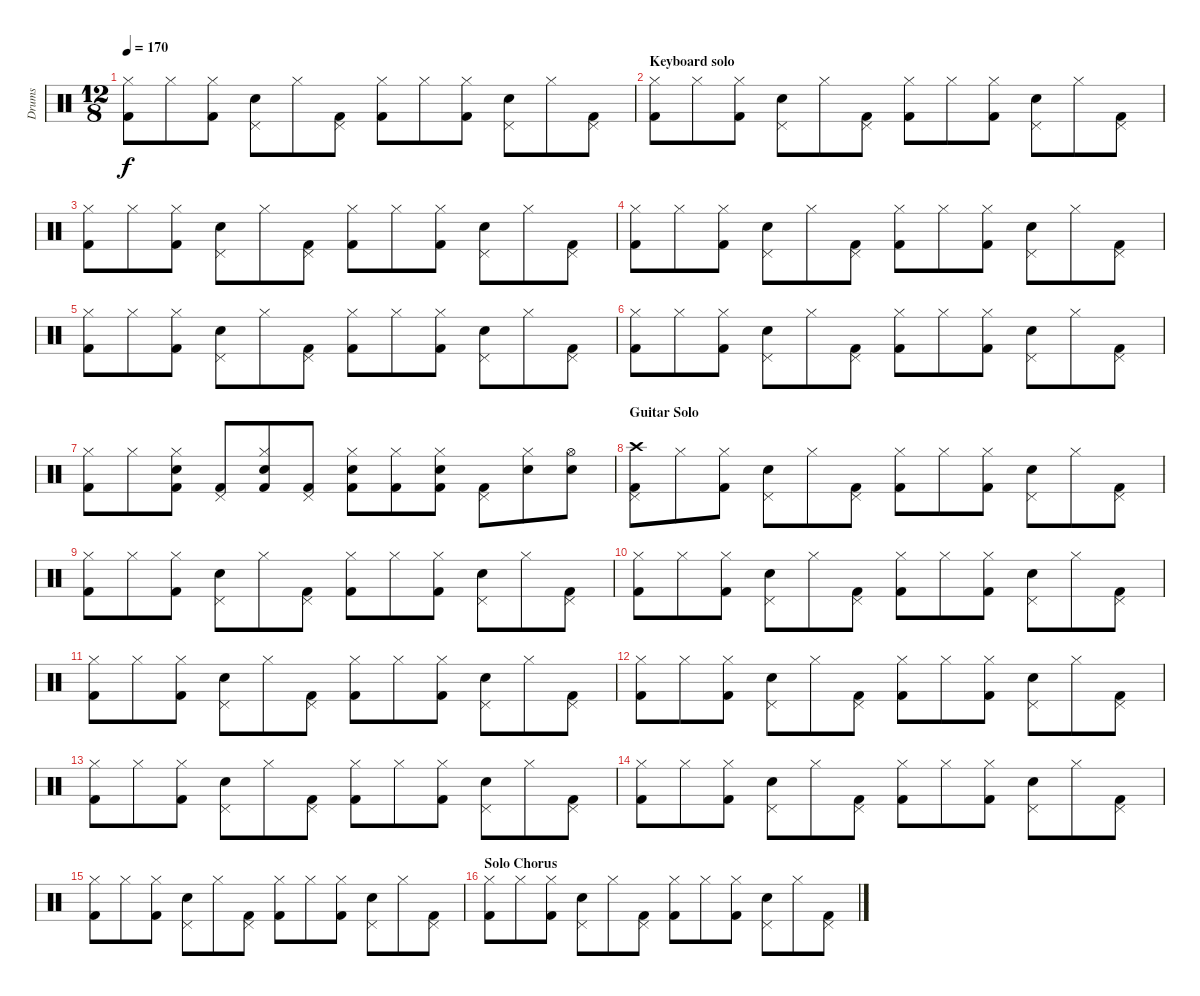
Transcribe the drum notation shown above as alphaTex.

\track ("Drums" "Drums") {instrument percussion}
\staff {score}
\articulation defaults
\ts (12 8)
\tempo 170
\clef neutral
\ks c
("Kick (hit) 2" "Hi-Hat (closed)").8{dy f} "Hi-Hat (closed)".8 ("Kick (hit) 2" "Hi-Hat (closed)").8 ("Snare (hit) 2" "Pedal Hi-Hat (hit)").8 "Hi-Hat (closed)".8 ("Kick (hit) 2" "Pedal Hi-Hat (hit)").8 ("Kick (hit) 2" "Hi-Hat (closed)").8 "Hi-Hat (closed)".8 ("Kick (hit) 2" "Hi-Hat (closed)").8 ("Snare (hit) 2" "Pedal Hi-Hat (hit)").8 "Hi-Hat (closed)".8 ("Kick (hit) 2" "Pedal Hi-Hat (hit)").8 |
\section ("" "Keyboard solo")
("Kick (hit) 2" "Hi-Hat (closed)").8 "Hi-Hat (closed)".8 ("Kick (hit) 2" "Hi-Hat (closed)").8 ("Snare (hit) 2" "Pedal Hi-Hat (hit)").8 "Hi-Hat (closed)".8 ("Kick (hit) 2" "Pedal Hi-Hat (hit)").8 ("Kick (hit) 2" "Hi-Hat (closed)").8 "Hi-Hat (closed)".8 ("Kick (hit) 2" "Hi-Hat (closed)").8 ("Snare (hit) 2" "Pedal Hi-Hat (hit)").8 "Hi-Hat (closed)".8 ("Kick (hit) 2" "Pedal Hi-Hat (hit)").8 |
("Kick (hit) 2" "Hi-Hat (closed)").8 "Hi-Hat (closed)".8 ("Kick (hit) 2" "Hi-Hat (closed)").8 ("Snare (hit) 2" "Pedal Hi-Hat (hit)").8 "Hi-Hat (closed)".8 ("Kick (hit) 2" "Pedal Hi-Hat (hit)").8 ("Kick (hit) 2" "Hi-Hat (closed)").8 "Hi-Hat (closed)".8 ("Kick (hit) 2" "Hi-Hat (closed)").8 ("Snare (hit) 2" "Pedal Hi-Hat (hit)").8 "Hi-Hat (closed)".8 ("Kick (hit) 2" "Pedal Hi-Hat (hit)").8 |
("Kick (hit) 2" "Hi-Hat (closed)").8 "Hi-Hat (closed)".8 ("Kick (hit) 2" "Hi-Hat (closed)").8 ("Snare (hit) 2" "Pedal Hi-Hat (hit)").8 "Hi-Hat (closed)".8 ("Kick (hit) 2" "Pedal Hi-Hat (hit)").8 ("Kick (hit) 2" "Hi-Hat (closed)").8 "Hi-Hat (closed)".8 ("Kick (hit) 2" "Hi-Hat (closed)").8 ("Snare (hit) 2" "Pedal Hi-Hat (hit)").8 "Hi-Hat (closed)".8 ("Kick (hit) 2" "Pedal Hi-Hat (hit)").8 |
("Kick (hit) 2" "Hi-Hat (closed)").8 "Hi-Hat (closed)".8 ("Kick (hit) 2" "Hi-Hat (closed)").8 ("Snare (hit) 2" "Pedal Hi-Hat (hit)").8 "Hi-Hat (closed)".8 ("Kick (hit) 2" "Pedal Hi-Hat (hit)").8 ("Kick (hit) 2" "Hi-Hat (closed)").8 "Hi-Hat (closed)".8 ("Kick (hit) 2" "Hi-Hat (closed)").8 ("Snare (hit) 2" "Pedal Hi-Hat (hit)").8 "Hi-Hat (closed)".8 ("Kick (hit) 2" "Pedal Hi-Hat (hit)").8 |
("Kick (hit) 2" "Hi-Hat (closed)").8 "Hi-Hat (closed)".8 ("Kick (hit) 2" "Hi-Hat (closed)").8 ("Snare (hit) 2" "Pedal Hi-Hat (hit)").8 "Hi-Hat (closed)".8 ("Kick (hit) 2" "Pedal Hi-Hat (hit)").8 ("Kick (hit) 2" "Hi-Hat (closed)").8 "Hi-Hat (closed)".8 ("Kick (hit) 2" "Hi-Hat (closed)").8 ("Snare (hit) 2" "Pedal Hi-Hat (hit)").8 "Hi-Hat (closed)".8 ("Kick (hit) 2" "Pedal Hi-Hat (hit)").8 |
("Kick (hit) 2" "Hi-Hat (closed)").8 "Hi-Hat (closed)".8 ("Kick (hit) 2" "Snare (hit) 2" "Hi-Hat (closed)").8 ("Kick (hit) 2" "Pedal Hi-Hat (hit)").8 ("Kick (hit) 2" "Snare (hit) 2" "Hi-Hat (closed)").8 ("Kick (hit) 2" "Pedal Hi-Hat (hit)").8 ("Kick (hit) 2" "Snare (hit) 2" "Hi-Hat (closed)").8 ("Kick (hit) 2" "Hi-Hat (closed)").8 ("Kick (hit) 2" "Snare (hit) 2" "Hi-Hat (closed)").8 ("Kick (hit) 2" "Pedal Hi-Hat (hit)").8 ("Snare (hit) 2" "Hi-Hat (closed)").8 ("Snare (hit) 2" "Hi-Hat (open)").8 |
\section ("" "Guitar Solo")
("Kick (hit) 2" "Crash high (hit)" "Pedal Hi-Hat (hit)").8 "Hi-Hat (closed)".8 ("Kick (hit) 2" "Hi-Hat (closed)").8 ("Snare (hit) 2" "Pedal Hi-Hat (hit)").8 "Hi-Hat (closed)".8 ("Kick (hit) 2" "Pedal Hi-Hat (hit)").8 ("Kick (hit) 2" "Hi-Hat (closed)").8 "Hi-Hat (closed)".8 ("Kick (hit) 2" "Hi-Hat (closed)").8 ("Snare (hit) 2" "Pedal Hi-Hat (hit)").8 "Hi-Hat (closed)".8 ("Kick (hit) 2" "Pedal Hi-Hat (hit)").8 |
("Kick (hit) 2" "Hi-Hat (closed)").8 "Hi-Hat (closed)".8 ("Kick (hit) 2" "Hi-Hat (closed)").8 ("Snare (hit) 2" "Pedal Hi-Hat (hit)").8 "Hi-Hat (closed)".8 ("Kick (hit) 2" "Pedal Hi-Hat (hit)").8 ("Kick (hit) 2" "Hi-Hat (closed)").8 "Hi-Hat (closed)".8 ("Kick (hit) 2" "Hi-Hat (closed)").8 ("Snare (hit) 2" "Pedal Hi-Hat (hit)").8 "Hi-Hat (closed)".8 ("Kick (hit) 2" "Pedal Hi-Hat (hit)").8 |
("Kick (hit) 2" "Hi-Hat (closed)").8 "Hi-Hat (closed)".8 ("Kick (hit) 2" "Hi-Hat (closed)").8 ("Snare (hit) 2" "Pedal Hi-Hat (hit)").8 "Hi-Hat (closed)".8 ("Kick (hit) 2" "Pedal Hi-Hat (hit)").8 ("Kick (hit) 2" "Hi-Hat (closed)").8 "Hi-Hat (closed)".8 ("Kick (hit) 2" "Hi-Hat (closed)").8 ("Snare (hit) 2" "Pedal Hi-Hat (hit)").8 "Hi-Hat (closed)".8 ("Kick (hit) 2" "Pedal Hi-Hat (hit)").8 |
("Kick (hit) 2" "Hi-Hat (closed)").8 "Hi-Hat (closed)".8 ("Kick (hit) 2" "Hi-Hat (closed)").8 ("Snare (hit) 2" "Pedal Hi-Hat (hit)").8 "Hi-Hat (closed)".8 ("Kick (hit) 2" "Pedal Hi-Hat (hit)").8 ("Kick (hit) 2" "Hi-Hat (closed)").8 "Hi-Hat (closed)".8 ("Kick (hit) 2" "Hi-Hat (closed)").8 ("Snare (hit) 2" "Pedal Hi-Hat (hit)").8 "Hi-Hat (closed)".8 ("Kick (hit) 2" "Pedal Hi-Hat (hit)").8 |
("Kick (hit) 2" "Hi-Hat (closed)").8 "Hi-Hat (closed)".8 ("Kick (hit) 2" "Hi-Hat (closed)").8 ("Snare (hit) 2" "Pedal Hi-Hat (hit)").8 "Hi-Hat (closed)".8 ("Kick (hit) 2" "Pedal Hi-Hat (hit)").8 ("Kick (hit) 2" "Hi-Hat (closed)").8 "Hi-Hat (closed)".8 ("Kick (hit) 2" "Hi-Hat (closed)").8 ("Snare (hit) 2" "Pedal Hi-Hat (hit)").8 "Hi-Hat (closed)".8 ("Kick (hit) 2" "Pedal Hi-Hat (hit)").8 |
("Kick (hit) 2" "Hi-Hat (closed)").8 "Hi-Hat (closed)".8 ("Kick (hit) 2" "Hi-Hat (closed)").8 ("Snare (hit) 2" "Pedal Hi-Hat (hit)").8 "Hi-Hat (closed)".8 ("Kick (hit) 2" "Pedal Hi-Hat (hit)").8 ("Kick (hit) 2" "Hi-Hat (closed)").8 "Hi-Hat (closed)".8 ("Kick (hit) 2" "Hi-Hat (closed)").8 ("Snare (hit) 2" "Pedal Hi-Hat (hit)").8 "Hi-Hat (closed)".8 ("Kick (hit) 2" "Pedal Hi-Hat (hit)").8 |
("Kick (hit) 2" "Hi-Hat (closed)").8 "Hi-Hat (closed)".8 ("Kick (hit) 2" "Hi-Hat (closed)").8 ("Snare (hit) 2" "Pedal Hi-Hat (hit)").8 "Hi-Hat (closed)".8 ("Kick (hit) 2" "Pedal Hi-Hat (hit)").8 ("Kick (hit) 2" "Hi-Hat (closed)").8 "Hi-Hat (closed)".8 ("Kick (hit) 2" "Hi-Hat (closed)").8 ("Snare (hit) 2" "Pedal Hi-Hat (hit)").8 "Hi-Hat (closed)".8 ("Kick (hit) 2" "Pedal Hi-Hat (hit)").8 |
("Kick (hit) 2" "Hi-Hat (closed)").8 "Hi-Hat (closed)".8 ("Kick (hit) 2" "Hi-Hat (closed)").8 ("Snare (hit) 2" "Pedal Hi-Hat (hit)").8 "Hi-Hat (closed)".8 ("Kick (hit) 2" "Pedal Hi-Hat (hit)").8 ("Kick (hit) 2" "Hi-Hat (closed)").8 "Hi-Hat (closed)".8 ("Kick (hit) 2" "Hi-Hat (closed)").8 ("Snare (hit) 2" "Pedal Hi-Hat (hit)").8 "Hi-Hat (closed)".8 ("Kick (hit) 2" "Pedal Hi-Hat (hit)").8 |
\section ("" "Solo Chorus")
("Kick (hit) 2" "Hi-Hat (closed)").8 "Hi-Hat (closed)".8 ("Kick (hit) 2" "Hi-Hat (closed)").8 ("Snare (hit) 2" "Pedal Hi-Hat (hit)").8 "Hi-Hat (closed)".8 ("Kick (hit) 2" "Pedal Hi-Hat (hit)").8 ("Kick (hit) 2" "Hi-Hat (closed)").8 "Hi-Hat (closed)".8 ("Kick (hit) 2" "Hi-Hat (closed)").8 ("Snare (hit) 2" "Pedal Hi-Hat (hit)").8 "Hi-Hat (closed)".8 ("Kick (hit) 2" "Pedal Hi-Hat (hit)").8
